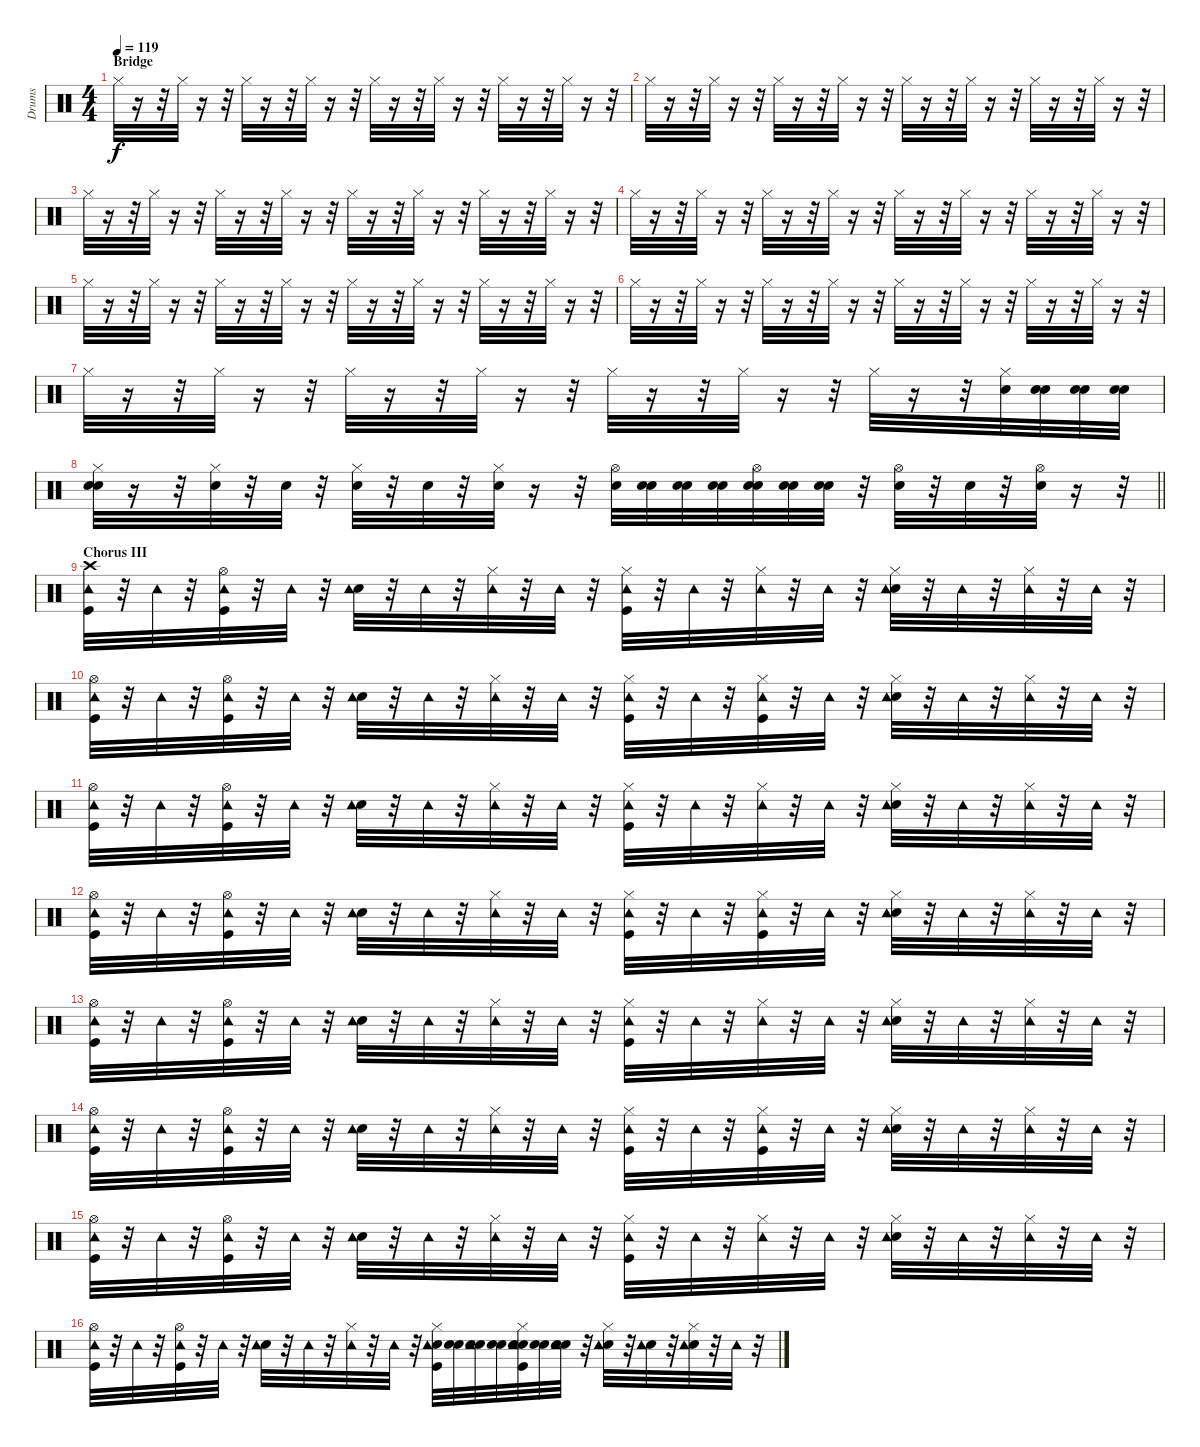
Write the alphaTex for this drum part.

\track ("Drums" "Drums") {instrument percussion}
\staff {score}
\articulation defaults
\ts (4 4)
\section ("" "Bridge")
\tempo 119
\clef neutral
\ks c "Hi-Hat (closed)".32{dy f}
r.16 r.32 "Hi-Hat (closed)".32 r.16 r.32 "Hi-Hat (closed)".32 r.16 r.32 "Hi-Hat (closed)".32 r.16 r.32 "Hi-Hat (closed)".32 r.16 r.32 "Hi-Hat (closed)".32 r.16 r.32 "Hi-Hat (closed)".32 r.16 r.32 "Hi-Hat (closed)".32 r.16 r.32 |
"Hi-Hat (closed)".32 r.16 r.32 "Hi-Hat (closed)".32 r.16 r.32 "Hi-Hat (closed)".32 r.16 r.32 "Hi-Hat (closed)".32 r.16 r.32 "Hi-Hat (closed)".32 r.16 r.32 "Hi-Hat (closed)".32 r.16 r.32 "Hi-Hat (closed)".32 r.16 r.32 "Hi-Hat (closed)".32 r.16 r.32 |
"Hi-Hat (closed)".32 r.16 r.32 "Hi-Hat (closed)".32 r.16 r.32 "Hi-Hat (closed)".32 r.16 r.32 "Hi-Hat (closed)".32 r.16 r.32 "Hi-Hat (closed)".32 r.16 r.32 "Hi-Hat (closed)".32 r.16 r.32 "Hi-Hat (closed)".32 r.16 r.32 "Hi-Hat (closed)".32 r.16 r.32 |
"Hi-Hat (closed)".32 r.16 r.32 "Hi-Hat (closed)".32 r.16 r.32 "Hi-Hat (closed)".32 r.16 r.32 "Hi-Hat (closed)".32 r.16 r.32 "Hi-Hat (closed)".32 r.16 r.32 "Hi-Hat (closed)".32 r.16 r.32 "Hi-Hat (closed)".32 r.16 r.32 "Hi-Hat (closed)".32 r.16 r.32 |
"Hi-Hat (closed)".32 r.16 r.32 "Hi-Hat (closed)".32 r.16 r.32 "Hi-Hat (closed)".32 r.16 r.32 "Hi-Hat (closed)".32 r.16 r.32 "Hi-Hat (closed)".32 r.16 r.32 "Hi-Hat (closed)".32 r.16 r.32 "Hi-Hat (closed)".32 r.16 r.32 "Hi-Hat (closed)".32 r.16 r.32 |
"Hi-Hat (closed)".32 r.16 r.32 "Hi-Hat (closed)".32 r.16 r.32 "Hi-Hat (closed)".32 r.16 r.32 "Hi-Hat (closed)".32 r.16 r.32 "Hi-Hat (closed)".32 r.16 r.32 "Hi-Hat (closed)".32 r.16 r.32 "Hi-Hat (closed)".32 r.16 r.32 "Hi-Hat (closed)".32 r.16 r.32 |
"Hi-Hat (closed)".32 r.16 r.32 "Hi-Hat (closed)".32 r.16 r.32 "Hi-Hat (closed)".32 r.16 r.32 "Hi-Hat (closed)".32 r.16 r.32 "Hi-Hat (closed)".32 r.16 r.32 "Hi-Hat (closed)".32 r.16 r.32 "Hi-Hat (closed)".32 r.16 r.32 ("Electric Snare (hit)" "Hi-Hat (closed)").32 ("Snare (hit)" "Electric Snare (hit)").32 ("Snare (hit)" "Electric Snare (hit)").32 ("Snare (hit)" "Electric Snare (hit)").32 |
\barLineRight lightlight
("Snare (hit)" "Electric Snare (hit)" "Hi-Hat (closed)").32 r.16 r.32 ("Electric Snare (hit)" "Hi-Hat (closed)").32 r.32 "Electric Snare (hit)".32 r.32 ("Electric Snare (hit)" "Hi-Hat (closed)").32 r.32 "Electric Snare (hit)".32 r.32 ("Electric Snare (hit)" "Hi-Hat (closed)").32 r.16 r.32 ("Electric Snare (hit)" "Hi-Hat (open)").32 ("Snare (hit)" "Electric Snare (hit)").32 ("Snare (hit)" "Electric Snare (hit)").32 ("Snare (hit)" "Electric Snare (hit)").32 ("Snare (hit)" "Electric Snare (hit)" "Hi-Hat (open)").32 ("Snare (hit)" "Electric Snare (hit)").32 ("Snare (hit)" "Electric Snare (hit)").32 r.32 ("Electric Snare (hit)" "Hi-Hat (open)").32 r.32 "Electric Snare (hit)".32 r.32 ("Electric Snare (hit)" "Hi-Hat (open)").32 r.16 r.32 |
\section ("" "Chorus III")
("Kick (hit)" "Crash high (hit)" "Tambourine (hit)").32 r.32 "Tambourine (hit)".32 r.32 ("Kick (hit)" "Hi-Hat (open)" "Tambourine (hit)").32 r.32 "Tambourine (hit)".32 r.32 ("Electric Snare (hit)" "Tambourine (hit)").32 r.32 "Tambourine (hit)".32 r.32 ("Hi-Hat (closed)" "Tambourine (hit)").32 r.32 "Tambourine (hit)".32 r.32 ("Kick (hit)" "Hi-Hat (closed)" "Tambourine (hit)").32 r.32 "Tambourine (hit)".32 r.32 ("Hi-Hat (closed)" "Tambourine (hit)").32 r.32 "Tambourine (hit)".32 r.32 ("Electric Snare (hit)" "Hi-Hat (closed)" "Tambourine (hit)").32 r.32 "Tambourine (hit)".32 r.32 ("Hi-Hat (closed)" "Tambourine (hit)").32 r.32 "Tambourine (hit)".32 r.32 |
("Kick (hit)" "Hi-Hat (open)" "Tambourine (hit)").32 r.32 "Tambourine (hit)".32 r.32 ("Kick (hit)" "Hi-Hat (open)" "Tambourine (hit)").32 r.32 "Tambourine (hit)".32 r.32 ("Electric Snare (hit)" "Tambourine (hit)").32 r.32 "Tambourine (hit)".32 r.32 ("Hi-Hat (closed)" "Tambourine (hit)").32 r.32 "Tambourine (hit)".32 r.32 ("Kick (hit)" "Hi-Hat (closed)" "Tambourine (hit)").32 r.32 "Tambourine (hit)".32 r.32 ("Kick (hit)" "Hi-Hat (closed)" "Tambourine (hit)").32 r.32 "Tambourine (hit)".32 r.32 ("Electric Snare (hit)" "Hi-Hat (closed)" "Tambourine (hit)").32 r.32 "Tambourine (hit)".32 r.32 ("Hi-Hat (closed)" "Tambourine (hit)").32 r.32 "Tambourine (hit)".32 r.32 |
("Kick (hit)" "Hi-Hat (open)" "Tambourine (hit)").32 r.32 "Tambourine (hit)".32 r.32 ("Kick (hit)" "Hi-Hat (open)" "Tambourine (hit)").32 r.32 "Tambourine (hit)".32 r.32 ("Electric Snare (hit)" "Tambourine (hit)").32 r.32 "Tambourine (hit)".32 r.32 ("Hi-Hat (closed)" "Tambourine (hit)").32 r.32 "Tambourine (hit)".32 r.32 ("Kick (hit)" "Hi-Hat (closed)" "Tambourine (hit)").32 r.32 "Tambourine (hit)".32 r.32 ("Hi-Hat (closed)" "Tambourine (hit)").32 r.32 "Tambourine (hit)".32 r.32 ("Electric Snare (hit)" "Hi-Hat (closed)" "Tambourine (hit)").32 r.32 "Tambourine (hit)".32 r.32 ("Hi-Hat (closed)" "Tambourine (hit)").32 r.32 "Tambourine (hit)".32 r.32 |
("Kick (hit)" "Hi-Hat (open)" "Tambourine (hit)").32 r.32 "Tambourine (hit)".32 r.32 ("Kick (hit)" "Hi-Hat (open)" "Tambourine (hit)").32 r.32 "Tambourine (hit)".32 r.32 ("Electric Snare (hit)" "Tambourine (hit)").32 r.32 "Tambourine (hit)".32 r.32 ("Hi-Hat (closed)" "Tambourine (hit)").32 r.32 "Tambourine (hit)".32 r.32 ("Kick (hit)" "Hi-Hat (closed)" "Tambourine (hit)").32 r.32 "Tambourine (hit)".32 r.32 ("Kick (hit)" "Hi-Hat (closed)" "Tambourine (hit)").32 r.32 "Tambourine (hit)".32 r.32 ("Electric Snare (hit)" "Hi-Hat (closed)" "Tambourine (hit)").32 r.32 "Tambourine (hit)".32 r.32 ("Hi-Hat (closed)" "Tambourine (hit)").32 r.32 "Tambourine (hit)".32 r.32 |
("Kick (hit)" "Hi-Hat (open)" "Tambourine (hit)").32 r.32 "Tambourine (hit)".32 r.32 ("Kick (hit)" "Hi-Hat (open)" "Tambourine (hit)").32 r.32 "Tambourine (hit)".32 r.32 ("Electric Snare (hit)" "Tambourine (hit)").32 r.32 "Tambourine (hit)".32 r.32 ("Hi-Hat (closed)" "Tambourine (hit)").32 r.32 "Tambourine (hit)".32 r.32 ("Kick (hit)" "Hi-Hat (closed)" "Tambourine (hit)").32 r.32 "Tambourine (hit)".32 r.32 ("Hi-Hat (closed)" "Tambourine (hit)").32 r.32 "Tambourine (hit)".32 r.32 ("Electric Snare (hit)" "Hi-Hat (closed)" "Tambourine (hit)").32 r.32 "Tambourine (hit)".32 r.32 ("Hi-Hat (closed)" "Tambourine (hit)").32 r.32 "Tambourine (hit)".32 r.32 |
("Kick (hit)" "Hi-Hat (open)" "Tambourine (hit)").32 r.32 "Tambourine (hit)".32 r.32 ("Kick (hit)" "Hi-Hat (open)" "Tambourine (hit)").32 r.32 "Tambourine (hit)".32 r.32 ("Electric Snare (hit)" "Tambourine (hit)").32 r.32 "Tambourine (hit)".32 r.32 ("Hi-Hat (closed)" "Tambourine (hit)").32 r.32 "Tambourine (hit)".32 r.32 ("Kick (hit)" "Hi-Hat (closed)" "Tambourine (hit)").32 r.32 "Tambourine (hit)".32 r.32 ("Kick (hit)" "Hi-Hat (closed)" "Tambourine (hit)").32 r.32 "Tambourine (hit)".32 r.32 ("Electric Snare (hit)" "Hi-Hat (closed)" "Tambourine (hit)").32 r.32 "Tambourine (hit)".32 r.32 ("Hi-Hat (closed)" "Tambourine (hit)").32 r.32 "Tambourine (hit)".32 r.32 |
("Kick (hit)" "Hi-Hat (open)" "Tambourine (hit)").32 r.32 "Tambourine (hit)".32 r.32 ("Kick (hit)" "Hi-Hat (open)" "Tambourine (hit)").32 r.32 "Tambourine (hit)".32 r.32 ("Electric Snare (hit)" "Tambourine (hit)").32 r.32 "Tambourine (hit)".32 r.32 ("Hi-Hat (closed)" "Tambourine (hit)").32 r.32 "Tambourine (hit)".32 r.32 ("Kick (hit)" "Hi-Hat (closed)" "Tambourine (hit)").32 r.32 "Tambourine (hit)".32 r.32 ("Hi-Hat (closed)" "Tambourine (hit)").32 r.32 "Tambourine (hit)".32 r.32 ("Electric Snare (hit)" "Hi-Hat (closed)" "Tambourine (hit)").32 r.32 "Tambourine (hit)".32 r.32 ("Hi-Hat (closed)" "Tambourine (hit)").32 r.32 "Tambourine (hit)".32 r.32 |
("Kick (hit)" "Hi-Hat (open)" "Tambourine (hit)").32 r.32 "Tambourine (hit)".32 r.32 ("Kick (hit)" "Hi-Hat (open)" "Tambourine (hit)").32 r.32 "Tambourine (hit)".32 r.32 ("Electric Snare (hit)" "Tambourine (hit)").32 r.32 "Tambourine (hit)".32 r.32 ("Hi-Hat (closed)" "Tambourine (hit)").32 r.32 "Tambourine (hit)".32 r.32 ("Kick (hit)" "Electric Snare (hit)" "Hi-Hat (closed)" "Tambourine (hit)").32 ("Snare (hit)" "Electric Snare (hit)").32 ("Snare (hit)" "Electric Snare (hit)" "Tambourine (hit)").32 ("Snare (hit)" "Electric Snare (hit)").32 ("Snare (hit)" "Kick (hit)" "Electric Snare (hit)" "Hi-Hat (closed)" "Tambourine (hit)").32 ("Snare (hit)" "Electric Snare (hit)").32 ("Snare (hit)" "Electric Snare (hit)" "Tambourine (hit)").32 r.32 ("Electric Snare (hit)" "Hi-Hat (closed)" "Tambourine (hit)").32 r.32 ("Electric Snare (hit)" "Tambourine (hit)").32 r.32 ("Electric Snare (hit)" "Hi-Hat (closed)" "Tambourine (hit)").32 r.32 "Tambourine (hit)".32 r.32
